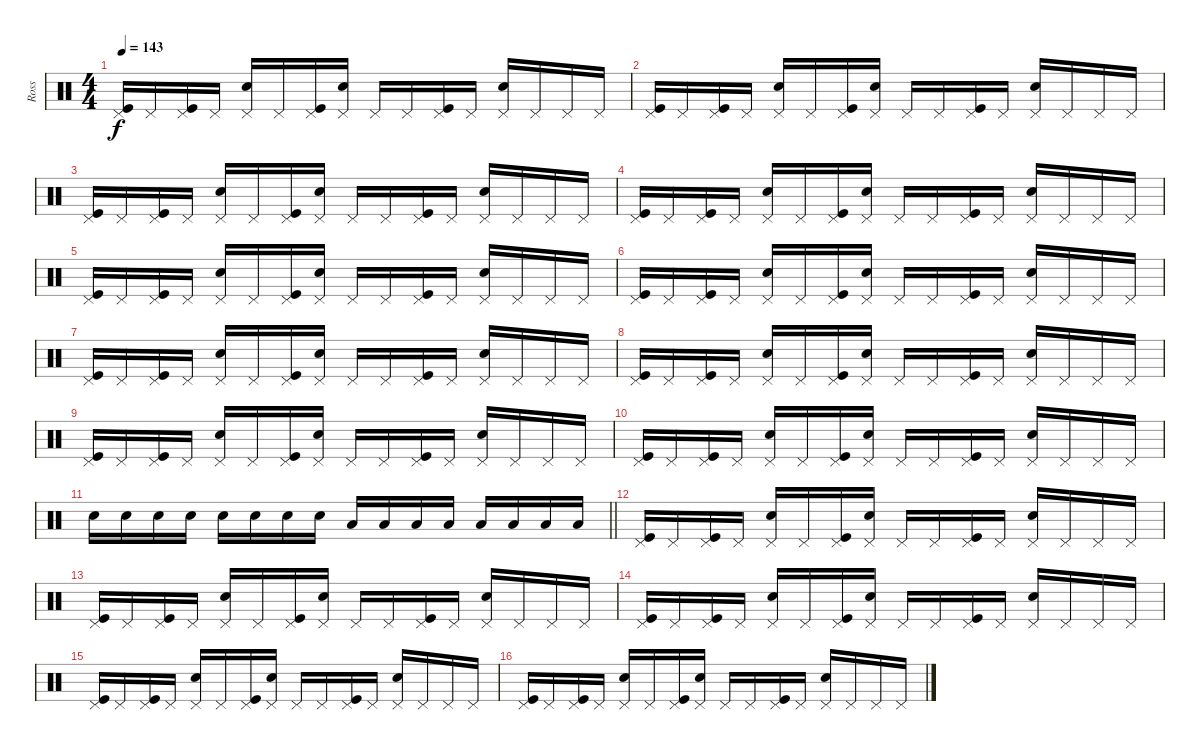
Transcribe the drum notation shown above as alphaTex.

\track ("Ross" "Ross") {instrument percussion}
\staff {score}
\articulation defaults
\ts (4 4)
\tempo 143
\clef neutral
\ks c
("Pedal Hi-Hat (hit)" "Kick (hit)").16{dy f} "Pedal Hi-Hat (hit)".16 ("Pedal Hi-Hat (hit)" "Kick (hit)").16 "Pedal Hi-Hat (hit)".16 ("Pedal Hi-Hat (hit)" "Snare (hit) 2").16 "Pedal Hi-Hat (hit)".16 ("Pedal Hi-Hat (hit)" "Kick (hit)").16 ("Pedal Hi-Hat (hit)" "Snare (hit) 2").16 "Pedal Hi-Hat (hit)".16 "Pedal Hi-Hat (hit)".16 ("Pedal Hi-Hat (hit)" "Kick (hit)").16 "Pedal Hi-Hat (hit)".16 ("Pedal Hi-Hat (hit)" "Snare (hit) 2").16 "Pedal Hi-Hat (hit)".16 "Pedal Hi-Hat (hit)".16 "Pedal Hi-Hat (hit)".16 |
("Pedal Hi-Hat (hit)" "Kick (hit)").16 "Pedal Hi-Hat (hit)".16 ("Pedal Hi-Hat (hit)" "Kick (hit)").16 "Pedal Hi-Hat (hit)".16 ("Pedal Hi-Hat (hit)" "Snare (hit) 2").16 "Pedal Hi-Hat (hit)".16 ("Pedal Hi-Hat (hit)" "Kick (hit)").16 ("Pedal Hi-Hat (hit)" "Snare (hit) 2").16 "Pedal Hi-Hat (hit)".16 "Pedal Hi-Hat (hit)".16 ("Pedal Hi-Hat (hit)" "Kick (hit)").16 "Pedal Hi-Hat (hit)".16 ("Pedal Hi-Hat (hit)" "Snare (hit) 2").16 "Pedal Hi-Hat (hit)".16 "Pedal Hi-Hat (hit)".16 "Pedal Hi-Hat (hit)".16 |
("Pedal Hi-Hat (hit)" "Kick (hit)").16 "Pedal Hi-Hat (hit)".16 ("Pedal Hi-Hat (hit)" "Kick (hit)").16 "Pedal Hi-Hat (hit)".16 ("Pedal Hi-Hat (hit)" "Snare (hit) 2").16 "Pedal Hi-Hat (hit)".16 ("Pedal Hi-Hat (hit)" "Kick (hit)").16 ("Pedal Hi-Hat (hit)" "Snare (hit) 2").16 "Pedal Hi-Hat (hit)".16 "Pedal Hi-Hat (hit)".16 ("Pedal Hi-Hat (hit)" "Kick (hit)").16 "Pedal Hi-Hat (hit)".16 ("Pedal Hi-Hat (hit)" "Snare (hit) 2").16 "Pedal Hi-Hat (hit)".16 "Pedal Hi-Hat (hit)".16 "Pedal Hi-Hat (hit)".16 |
("Pedal Hi-Hat (hit)" "Kick (hit)").16 "Pedal Hi-Hat (hit)".16 ("Pedal Hi-Hat (hit)" "Kick (hit)").16 "Pedal Hi-Hat (hit)".16 ("Pedal Hi-Hat (hit)" "Snare (hit) 2").16 "Pedal Hi-Hat (hit)".16 ("Pedal Hi-Hat (hit)" "Kick (hit)").16 ("Pedal Hi-Hat (hit)" "Snare (hit) 2").16 "Pedal Hi-Hat (hit)".16 "Pedal Hi-Hat (hit)".16 ("Pedal Hi-Hat (hit)" "Kick (hit)").16 "Pedal Hi-Hat (hit)".16 ("Pedal Hi-Hat (hit)" "Snare (hit) 2").16 "Pedal Hi-Hat (hit)".16 "Pedal Hi-Hat (hit)".16 "Pedal Hi-Hat (hit)".16 |
("Pedal Hi-Hat (hit)" "Kick (hit)").16 "Pedal Hi-Hat (hit)".16 ("Pedal Hi-Hat (hit)" "Kick (hit)").16 "Pedal Hi-Hat (hit)".16 ("Pedal Hi-Hat (hit)" "Snare (hit) 2").16 "Pedal Hi-Hat (hit)".16 ("Pedal Hi-Hat (hit)" "Kick (hit)").16 ("Pedal Hi-Hat (hit)" "Snare (hit) 2").16 "Pedal Hi-Hat (hit)".16 "Pedal Hi-Hat (hit)".16 ("Pedal Hi-Hat (hit)" "Kick (hit)").16 "Pedal Hi-Hat (hit)".16 ("Pedal Hi-Hat (hit)" "Snare (hit) 2").16 "Pedal Hi-Hat (hit)".16 "Pedal Hi-Hat (hit)".16 "Pedal Hi-Hat (hit)".16 |
("Pedal Hi-Hat (hit)" "Kick (hit)").16 "Pedal Hi-Hat (hit)".16 ("Pedal Hi-Hat (hit)" "Kick (hit)").16 "Pedal Hi-Hat (hit)".16 ("Pedal Hi-Hat (hit)" "Snare (hit) 2").16 "Pedal Hi-Hat (hit)".16 ("Pedal Hi-Hat (hit)" "Kick (hit)").16 ("Pedal Hi-Hat (hit)" "Snare (hit) 2").16 "Pedal Hi-Hat (hit)".16 "Pedal Hi-Hat (hit)".16 ("Pedal Hi-Hat (hit)" "Kick (hit)").16 "Pedal Hi-Hat (hit)".16 ("Pedal Hi-Hat (hit)" "Snare (hit) 2").16 "Pedal Hi-Hat (hit)".16 "Pedal Hi-Hat (hit)".16 "Pedal Hi-Hat (hit)".16 |
("Pedal Hi-Hat (hit)" "Kick (hit)").16 "Pedal Hi-Hat (hit)".16 ("Pedal Hi-Hat (hit)" "Kick (hit)").16 "Pedal Hi-Hat (hit)".16 ("Pedal Hi-Hat (hit)" "Snare (hit) 2").16 "Pedal Hi-Hat (hit)".16 ("Pedal Hi-Hat (hit)" "Kick (hit)").16 ("Pedal Hi-Hat (hit)" "Snare (hit) 2").16 "Pedal Hi-Hat (hit)".16 "Pedal Hi-Hat (hit)".16 ("Pedal Hi-Hat (hit)" "Kick (hit)").16 "Pedal Hi-Hat (hit)".16 ("Pedal Hi-Hat (hit)" "Snare (hit) 2").16 "Pedal Hi-Hat (hit)".16 "Pedal Hi-Hat (hit)".16 "Pedal Hi-Hat (hit)".16 |
("Pedal Hi-Hat (hit)" "Kick (hit)").16 "Pedal Hi-Hat (hit)".16 ("Pedal Hi-Hat (hit)" "Kick (hit)").16 "Pedal Hi-Hat (hit)".16 ("Pedal Hi-Hat (hit)" "Snare (hit) 2").16 "Pedal Hi-Hat (hit)".16 ("Pedal Hi-Hat (hit)" "Kick (hit)").16 ("Pedal Hi-Hat (hit)" "Snare (hit) 2").16 "Pedal Hi-Hat (hit)".16 "Pedal Hi-Hat (hit)".16 ("Pedal Hi-Hat (hit)" "Kick (hit)").16 "Pedal Hi-Hat (hit)".16 ("Pedal Hi-Hat (hit)" "Snare (hit) 2").16 "Pedal Hi-Hat (hit)".16 "Pedal Hi-Hat (hit)".16 "Pedal Hi-Hat (hit)".16 |
("Pedal Hi-Hat (hit)" "Kick (hit)").16 "Pedal Hi-Hat (hit)".16 ("Pedal Hi-Hat (hit)" "Kick (hit)").16 "Pedal Hi-Hat (hit)".16 ("Pedal Hi-Hat (hit)" "Snare (hit) 2").16 "Pedal Hi-Hat (hit)".16 ("Pedal Hi-Hat (hit)" "Kick (hit)").16 ("Pedal Hi-Hat (hit)" "Snare (hit) 2").16 "Pedal Hi-Hat (hit)".16 "Pedal Hi-Hat (hit)".16 ("Pedal Hi-Hat (hit)" "Kick (hit)").16 "Pedal Hi-Hat (hit)".16 ("Pedal Hi-Hat (hit)" "Snare (hit) 2").16 "Pedal Hi-Hat (hit)".16 "Pedal Hi-Hat (hit)".16 "Pedal Hi-Hat (hit)".16 |
("Pedal Hi-Hat (hit)" "Kick (hit)").16 "Pedal Hi-Hat (hit)".16 ("Pedal Hi-Hat (hit)" "Kick (hit)").16 "Pedal Hi-Hat (hit)".16 ("Pedal Hi-Hat (hit)" "Snare (hit) 2").16 "Pedal Hi-Hat (hit)".16 ("Pedal Hi-Hat (hit)" "Kick (hit)").16 ("Pedal Hi-Hat (hit)" "Snare (hit) 2").16 "Pedal Hi-Hat (hit)".16 "Pedal Hi-Hat (hit)".16 ("Pedal Hi-Hat (hit)" "Kick (hit)").16 "Pedal Hi-Hat (hit)".16 ("Pedal Hi-Hat (hit)" "Snare (hit) 2").16 "Pedal Hi-Hat (hit)".16 "Pedal Hi-Hat (hit)".16 "Pedal Hi-Hat (hit)".16 |
\barLineRight lightlight "Snare (hit) 2".16 "Snare (hit) 2".16 "Snare (hit) 2".16 "Snare (hit) 2".16 "Snare (hit) 2".16 "Snare (hit) 2".16 "Snare (hit) 2".16 "Snare (hit) 2".16 "Low Tom (hit)".16 "Low Tom (hit)".16 "Low Tom (hit)".16 "Low Tom (hit)".16 "Low Tom (hit)".16 "Low Tom (hit)".16 "Low Tom (hit)".16 "Low Tom (hit)".16
|
("Pedal Hi-Hat (hit)" "Kick (hit)").16 "Pedal Hi-Hat (hit)".16 ("Pedal Hi-Hat (hit)" "Kick (hit)").16 "Pedal Hi-Hat (hit)".16 ("Pedal Hi-Hat (hit)" "Snare (hit) 2").16 "Pedal Hi-Hat (hit)".16 ("Pedal Hi-Hat (hit)" "Kick (hit)").16 ("Pedal Hi-Hat (hit)" "Snare (hit) 2").16 "Pedal Hi-Hat (hit)".16 "Pedal Hi-Hat (hit)".16 ("Pedal Hi-Hat (hit)" "Kick (hit)").16 "Pedal Hi-Hat (hit)".16 ("Pedal Hi-Hat (hit)" "Snare (hit) 2").16 "Pedal Hi-Hat (hit)".16 "Pedal Hi-Hat (hit)".16 "Pedal Hi-Hat (hit)".16 |
("Pedal Hi-Hat (hit)" "Kick (hit)").16 "Pedal Hi-Hat (hit)".16 ("Pedal Hi-Hat (hit)" "Kick (hit)").16 "Pedal Hi-Hat (hit)".16 ("Pedal Hi-Hat (hit)" "Snare (hit) 2").16 "Pedal Hi-Hat (hit)".16 ("Pedal Hi-Hat (hit)" "Kick (hit)").16 ("Pedal Hi-Hat (hit)" "Snare (hit) 2").16 "Pedal Hi-Hat (hit)".16 "Pedal Hi-Hat (hit)".16 ("Pedal Hi-Hat (hit)" "Kick (hit)").16 "Pedal Hi-Hat (hit)".16 ("Pedal Hi-Hat (hit)" "Snare (hit) 2").16 "Pedal Hi-Hat (hit)".16 "Pedal Hi-Hat (hit)".16 "Pedal Hi-Hat (hit)".16 |
("Pedal Hi-Hat (hit)" "Kick (hit)").16 "Pedal Hi-Hat (hit)".16 ("Pedal Hi-Hat (hit)" "Kick (hit)").16 "Pedal Hi-Hat (hit)".16 ("Pedal Hi-Hat (hit)" "Snare (hit) 2").16 "Pedal Hi-Hat (hit)".16 ("Pedal Hi-Hat (hit)" "Kick (hit)").16 ("Pedal Hi-Hat (hit)" "Snare (hit) 2").16 "Pedal Hi-Hat (hit)".16 "Pedal Hi-Hat (hit)".16 ("Pedal Hi-Hat (hit)" "Kick (hit)").16 "Pedal Hi-Hat (hit)".16 ("Pedal Hi-Hat (hit)" "Snare (hit) 2").16 "Pedal Hi-Hat (hit)".16 "Pedal Hi-Hat (hit)".16 "Pedal Hi-Hat (hit)".16 |
("Pedal Hi-Hat (hit)" "Kick (hit)").16 "Pedal Hi-Hat (hit)".16 ("Pedal Hi-Hat (hit)" "Kick (hit)").16 "Pedal Hi-Hat (hit)".16 ("Pedal Hi-Hat (hit)" "Snare (hit) 2").16 "Pedal Hi-Hat (hit)".16 ("Pedal Hi-Hat (hit)" "Kick (hit)").16 ("Pedal Hi-Hat (hit)" "Snare (hit) 2").16 "Pedal Hi-Hat (hit)".16 "Pedal Hi-Hat (hit)".16 ("Pedal Hi-Hat (hit)" "Kick (hit)").16 "Pedal Hi-Hat (hit)".16 ("Pedal Hi-Hat (hit)" "Snare (hit) 2").16 "Pedal Hi-Hat (hit)".16 "Pedal Hi-Hat (hit)".16 "Pedal Hi-Hat (hit)".16 |
("Pedal Hi-Hat (hit)" "Kick (hit)").16 "Pedal Hi-Hat (hit)".16 ("Pedal Hi-Hat (hit)" "Kick (hit)").16 "Pedal Hi-Hat (hit)".16 ("Pedal Hi-Hat (hit)" "Snare (hit) 2").16 "Pedal Hi-Hat (hit)".16 ("Pedal Hi-Hat (hit)" "Kick (hit)").16 ("Pedal Hi-Hat (hit)" "Snare (hit) 2").16 "Pedal Hi-Hat (hit)".16 "Pedal Hi-Hat (hit)".16 ("Pedal Hi-Hat (hit)" "Kick (hit)").16 "Pedal Hi-Hat (hit)".16 ("Pedal Hi-Hat (hit)" "Snare (hit) 2").16 "Pedal Hi-Hat (hit)".16 "Pedal Hi-Hat (hit)".16 "Pedal Hi-Hat (hit)".16
